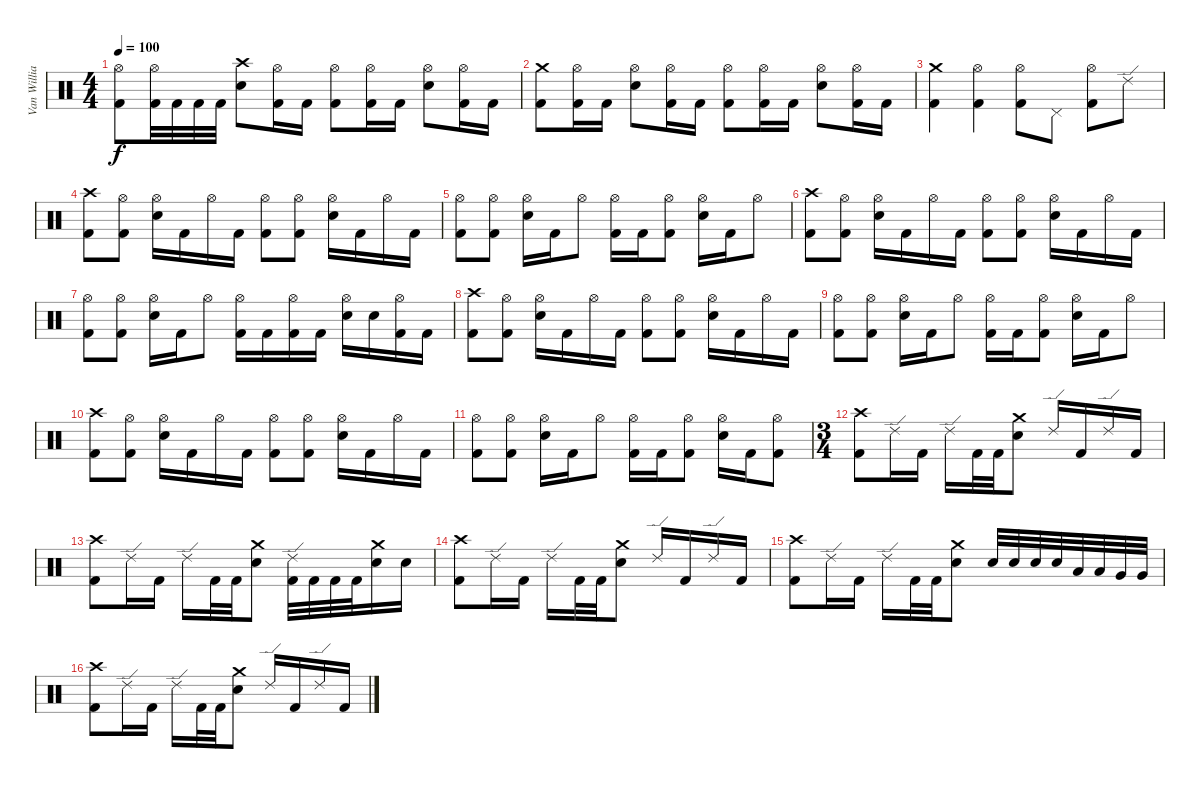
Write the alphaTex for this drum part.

\track ("Van Williams" "Van Willia") {instrument percussion}
\staff {score}
\articulation defaults
\ts (4 4)
\tempo 100
\clef neutral
\ks c
("Hi-Hat (open)" "Kick (hit) 2").8{dy f} ("Hi-Hat (open)" "Kick (hit) 2").32 "Kick (hit) 2".32 "Kick (hit) 2".32 "Kick (hit) 2".32 ("Crash high (hit)" "Electric Snare (hit)").8 ("Hi-Hat (open)" "Kick (hit) 2").16 "Kick (hit) 2".16 ("Hi-Hat (open)" "Kick (hit) 2").8 ("Hi-Hat (open)" "Kick (hit) 2").16 "Kick (hit) 2".16 ("Hi-Hat (open)" "Electric Snare (hit)").8 ("Hi-Hat (open)" "Kick (hit) 2").16 "Kick (hit) 2".16 |
("Crash medium (hit)" "Kick (hit) 2").8 ("Hi-Hat (open)" "Kick (hit) 2").16 "Kick (hit) 2".16 ("Hi-Hat (open)" "Electric Snare (hit)").8 ("Hi-Hat (open)" "Kick (hit) 2").16 "Kick (hit) 2".16 ("Hi-Hat (open)" "Kick (hit) 2").8 ("Hi-Hat (open)" "Kick (hit) 2").16 "Kick (hit) 2".16 ("Hi-Hat (open)" "Electric Snare (hit)").8 ("Hi-Hat (open)" "Kick (hit) 2").16 "Kick (hit) 2".16 |
("Crash medium (hit)" "Kick (hit) 2").4 ("Hi-Hat (open)" "Kick (hit) 2").4 ("Hi-Hat (open)" "Kick (hit) 2").8 "Pedal Hi-Hat (hit)".8 ("Hi-Hat (open)" "Kick (hit) 2").8 "Ride (edge) 2".8 |
("Crash high (hit)" "Kick (hit) 2").8 ("Hi-Hat (open)" "Kick (hit) 2").8 ("Hi-Hat (open)" "Electric Snare (hit)").16 "Kick (hit) 2".16 "Hi-Hat (open)".16 "Kick (hit) 2".16 ("Hi-Hat (open)" "Kick (hit) 2").8 ("Hi-Hat (open)" "Kick (hit) 2").8 ("Hi-Hat (open)" "Electric Snare (hit)").16 "Kick (hit) 2".16 "Hi-Hat (open)".16 "Kick (hit) 2".16 |
("Hi-Hat (open)" "Kick (hit) 2").8 ("Hi-Hat (open)" "Kick (hit) 2").8 ("Hi-Hat (open)" "Electric Snare (hit)").16 "Kick (hit) 2".16 "Hi-Hat (open)".8 ("Hi-Hat (open)" "Kick (hit) 2").16 "Kick (hit) 2".16 ("Hi-Hat (open)" "Kick (hit) 2").8 ("Hi-Hat (open)" "Electric Snare (hit)").16 "Kick (hit) 2".16 "Hi-Hat (open)".8 |
("Crash high (hit)" "Kick (hit) 2").8 ("Hi-Hat (open)" "Kick (hit) 2").8 ("Hi-Hat (open)" "Electric Snare (hit)").16 "Kick (hit) 2".16 "Hi-Hat (open)".16 "Kick (hit) 2".16 ("Hi-Hat (open)" "Kick (hit) 2").8 ("Hi-Hat (open)" "Kick (hit) 2").8 ("Hi-Hat (open)" "Electric Snare (hit)").16 "Kick (hit) 2".16 "Hi-Hat (open)".16 "Kick (hit) 2".16 |
("Hi-Hat (open)" "Kick (hit) 2").8 ("Hi-Hat (open)" "Kick (hit) 2").8 ("Hi-Hat (open)" "Electric Snare (hit)").16 "Kick (hit) 2".16 "Hi-Hat (open)".8 ("Hi-Hat (open)" "Kick (hit) 2").16 "Kick (hit) 2".16 ("Hi-Hat (open)" "Kick (hit) 2").16 "Kick (hit) 2".16 ("Hi-Hat (open)" "Electric Snare (hit)").16 "Electric Snare (hit)".16 ("Hi-Hat (open)" "Kick (hit) 2").16 "Kick (hit) 2".16 |
("Crash high (hit)" "Kick (hit) 2").8 ("Hi-Hat (open)" "Kick (hit) 2").8 ("Hi-Hat (open)" "Electric Snare (hit)").16 "Kick (hit) 2".16 "Hi-Hat (open)".16 "Kick (hit) 2".16 ("Hi-Hat (open)" "Kick (hit) 2").8 ("Hi-Hat (open)" "Kick (hit) 2").8 ("Hi-Hat (open)" "Electric Snare (hit)").16 "Kick (hit) 2".16 "Hi-Hat (open)".16 "Kick (hit) 2".16 |
("Hi-Hat (open)" "Kick (hit) 2").8 ("Hi-Hat (open)" "Kick (hit) 2").8 ("Hi-Hat (open)" "Electric Snare (hit)").16 "Kick (hit) 2".16 "Hi-Hat (open)".8 ("Hi-Hat (open)" "Kick (hit) 2").16 "Kick (hit) 2".16 ("Hi-Hat (open)" "Kick (hit) 2").8 ("Hi-Hat (open)" "Electric Snare (hit)").16 "Kick (hit) 2".16 "Hi-Hat (open)".8 |
("Crash high (hit)" "Kick (hit) 2").8 ("Hi-Hat (open)" "Kick (hit) 2").8 ("Hi-Hat (open)" "Electric Snare (hit)").16 "Kick (hit) 2".16 "Hi-Hat (open)".16 "Kick (hit) 2".16 ("Hi-Hat (open)" "Kick (hit) 2").8 ("Hi-Hat (open)" "Kick (hit) 2").8 ("Hi-Hat (open)" "Electric Snare (hit)").16 "Kick (hit) 2".16 "Hi-Hat (open)".16 "Kick (hit) 2".16 |
("Hi-Hat (open)" "Kick (hit) 2").8 ("Hi-Hat (open)" "Kick (hit) 2").8 ("Hi-Hat (open)" "Electric Snare (hit)").16 "Kick (hit) 2".16 "Hi-Hat (open)".8 ("Hi-Hat (open)" "Kick (hit) 2").16 "Kick (hit) 2".16 ("Hi-Hat (open)" "Kick (hit) 2").8 ("Hi-Hat (open)" "Electric Snare (hit)").16 "Kick (hit) 2".16 ("Hi-Hat (open)" "Kick (hit) 2").8 |
\ts (3 4)
("Crash high (hit)" "Kick (hit) 2").8 "Ride (edge) 2".16 "Kick (hit) 2".16 "Ride (edge) 2".16 "Kick (hit) 2".32 "Kick (hit) 2".32 ("Crash medium (hit)" "Electric Snare (hit)").8 "Ride (edge) 2".16 "Kick (hit) 2".16 "Ride (edge) 2".16 "Kick (hit) 2".16 |
("Crash high (hit)" "Kick (hit) 2").8 "Ride (edge) 2".16 "Kick (hit) 2".16 "Ride (edge) 2".16 "Kick (hit) 2".32 "Kick (hit) 2".32 ("Crash medium (hit)" "Electric Snare (hit)").8 ("Ride (edge) 2" "Kick (hit) 2").32 "Kick (hit) 2".32 "Kick (hit) 2".32 "Kick (hit) 2".32 ("Crash medium (hit)" "Electric Snare (hit)").16 "Electric Snare (hit)".16 |
("Crash high (hit)" "Kick (hit) 2").8 "Ride (edge) 2".16 "Kick (hit) 2".16 "Ride (edge) 2".16 "Kick (hit) 2".32 "Kick (hit) 2".32 ("Crash medium (hit)" "Electric Snare (hit)").8 "Ride (edge) 2".16 "Kick (hit) 2".16 "Ride (edge) 2".16 "Kick (hit) 2".16 |
("Crash high (hit)" "Kick (hit) 2").8 "Ride (edge) 2".16 "Kick (hit) 2".16 "Ride (edge) 2".16 "Kick (hit) 2".32 "Kick (hit) 2".32 ("Crash medium (hit)" "Electric Snare (hit)").8 "Electric Snare (hit)".32 "Electric Snare (hit)".32 "Electric Snare (hit)".32 "Electric Snare (hit)".32 "Low Tom (hit)".32 "Low Tom (hit)".32 "Very Low Tom (hit)".32 "Very Low Tom (hit)".32 |
("Crash high (hit)" "Kick (hit) 2").8 "Ride (edge) 2".16 "Kick (hit) 2".16 "Ride (edge) 2".16 "Kick (hit) 2".32 "Kick (hit) 2".32 ("Crash medium (hit)" "Electric Snare (hit)").8 "Ride (edge) 2".16 "Kick (hit) 2".16 "Ride (edge) 2".16 "Kick (hit) 2".16
